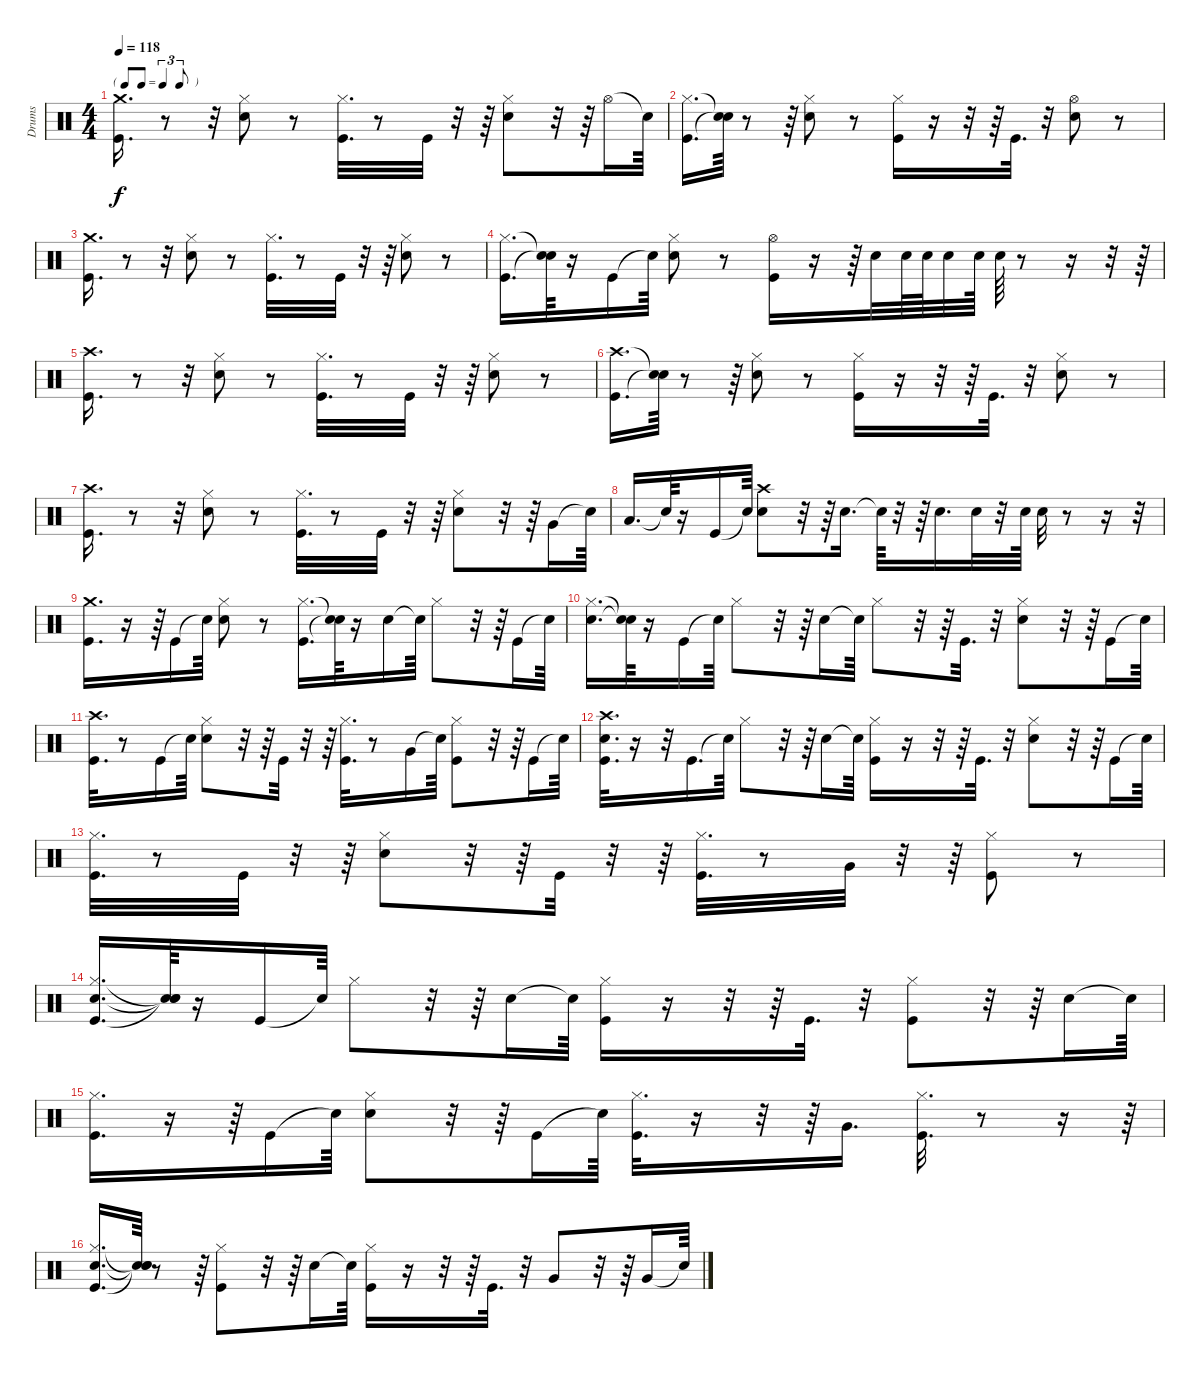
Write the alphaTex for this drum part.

\track ("Drums" "Drums") {instrument percussion}
\staff {score}
\articulation defaults
\ts (4 4)
\tf triplet8th
\tempo 118
\clef neutral
\ks c
("Kick (hit)" "Crash medium (hit)").16{d dy f} r.8 r.32 ("Hi-Hat (closed)" "Snare (hit) 2").8 r.8 ("Kick (hit)" "Hi-Hat (closed)").32{d} r.8 "Kick (hit)".32 r.32 r.64 ("Snare (hit) 2" "Hi-Hat (closed)").8 r.32 r.64 "Hi-Hat (open)".16 "Snare (hit)"{t}.64 |
("Hi-Hat (closed)" "Kick (hit)").16{d} ("Snare (hit)"{t} "Snare (hit)"{t}).64 r.8 r.64 ("Snare (hit) 2" "Hi-Hat (closed)").8 r.8 ("Kick (hit)" "Hi-Hat (closed)").16 r.16 r.32 r.64 "Kick (hit)".32{d} r.32 ("Snare (hit) 2" "Hi-Hat (open)").8 r.8 |
("Kick (hit)" "Crash medium (hit)").16{d} r.8 r.32 ("Hi-Hat (closed)" "Snare (hit) 2").8 r.8 ("Kick (hit)" "Hi-Hat (closed)").32{d} r.8 "Kick (hit)".32 r.32 r.64 ("Snare (hit) 2" "Hi-Hat (closed)").8 r.8 |
("Hi-Hat (closed)" "Kick (hit)").16{d} ("Snare (hit)"{t} "Snare (hit)"{t}).64 r.16 "Kick (hit)".16 "Snare (hit)"{t}.64 ("Snare (hit) 2" "Hi-Hat (closed)").8 r.8 ("Hi-Hat (open)" "Kick (hit)").16 r.16 r.64 "Snare (hit) 2".32 "Snare (hit) 2".64 "Snare (hit) 2".64 "Snare (hit) 2".32 "Snare (hit) 2".64 "Snare (hit) 2".64 r.8 r.16 r.32 r.64 |
("Kick (hit)" "Crash high (hit)").16{d} r.8 r.32 ("Snare (hit) 2" "Hi-Hat (closed)").8 r.8 ("Hi-Hat (closed)" "Kick (hit)").32{d} r.8 "Kick (hit)".32 r.32 r.64 ("Snare (hit) 2" "Hi-Hat (closed)").8 r.8 |
("Crash high (hit)" "Kick (hit)").16{d} ("Snare (hit)"{t} "Snare (hit)"{t}).64 r.8 r.64 ("Hi-Hat (closed)" "Snare (hit) 2").8 r.8 ("Hi-Hat (closed)" "Kick (hit)").16 r.16 r.32 r.64 "Kick (hit)".32{d} r.32 ("Snare (hit) 2" "Hi-Hat (closed)").8 r.8 |
("Crash high (hit)" "Kick (hit)").16{d} r.8 r.32 ("Snare (hit) 2" "Hi-Hat (closed)").8 r.8 ("Kick (hit)" "Hi-Hat (closed)").32{d} r.8 "Kick (hit)".32 r.32 r.64 ("Snare (hit) 2" "Hi-Hat (closed)").8 r.32 r.64 "Very Low Tom (hit)".16 "Snare (hit)"{t}.64 |
"Low Floor Tom (hit)".16{d} "Snare (hit)"{t}.64 r.16 "Kick (hit)".16 "Snare (hit)"{t}.64 ("Snare (hit) 2" "Crash high (hit)").8 r.32 r.64 "Snare (hit) 2".16{d} "Snare (hit)"{t}.64 r.32 r.64 "Snare (hit) 2".16{d} "Snare (hit) 2".32 r.32 "Snare (hit) 2".64 "Snare (hit) 2".32 r.8 r.16 r.32 |
("Kick (hit)" "Crash medium (hit)").16{d} r.16 r.64 "Kick (hit)".16 "Snare (hit)"{t}.64 ("Snare (hit) 2" "Hi-Hat (closed)").8 r.8 ("Kick (hit)" "Hi-Hat (closed)").16{d} ("Snare (hit)"{t} "Snare (hit)"{t}).64 r.16 "Snare (hit) 2".16 "Snare (hit)"{t}.64 "Hi-Hat (closed)".8 r.32 r.64 "Kick (hit)".16 "Snare (hit)"{t}.64 |
("Snare (hit) 2" "Hi-Hat (closed)").16{d} ("Snare (hit)"{t} "Snare (hit)"{t}).64 r.16 "Kick (hit)".16 "Snare (hit)"{t}.64 "Hi-Hat (closed)".8 r.32 r.64 "Snare (hit) 2".16 "Snare (hit)"{t}.64 "Hi-Hat (closed)".8 r.32 r.64 "Kick (hit)".32{d} r.32 ("Snare (hit) 2" "Hi-Hat (closed)").8 r.32 r.64 "Kick (hit)".16 "Snare (hit)"{t}.64 |
("Crash high (hit)" "Kick (hit)").32{d} r.8 "Kick (hit)".16 "Snare (hit)"{t}.64 ("Snare (hit) 2" "Hi-Hat (closed)").8 r.32 r.64 "Kick (hit)".32 r.32 r.64 ("Kick (hit)" "Hi-Hat (closed)").32{d} r.8 "Very Low Tom (hit)".16 "Snare (hit)"{t}.64 ("Kick (hit)" "Hi-Hat (closed)").8 r.32 r.64 "Kick (hit)".16 "Snare (hit)"{t}.64 |
("Snare (hit) 2" "Crash high (hit)" "Kick (hit)").32{d} r.16 r.32 "Kick (hit)".16{d} "Snare (hit)"{t}.64 "Hi-Hat (closed)".8 r.32 r.64 "Snare (hit) 2".16 "Snare (hit)"{t}.64 ("Hi-Hat (closed)" "Kick (hit)").16 r.16 r.32 r.64 "Kick (hit)".32{d} r.32 ("Snare (hit) 2" "Hi-Hat (closed)").8 r.32 r.64 "Kick (hit)".16 "Snare (hit)"{t}.64 |
("Hi-Hat (closed)" "Kick (hit)").32{d} r.8 "Kick (hit)".32 r.32 r.64 ("Hi-Hat (closed)" "Snare (hit) 2").8 r.32 r.64 "Kick (hit)".32 r.32 r.64 ("Hi-Hat (closed)" "Kick (hit)").32{d} r.8 "Very Low Tom (hit)".32 r.32 r.64 ("Hi-Hat (closed)" "Kick (hit)").8 r.8 |
("Kick (hit)" "Hi-Hat (closed)" "Snare (hit) 2").16{d} ("Snare (hit)"{t} "Snare (hit)"{t} "Snare (hit)"{t}).64 r.16 "Kick (hit)".16 "Snare (hit)"{t}.64 "Hi-Hat (closed)".8 r.32 r.64 "Snare (hit) 2".16 "Snare (hit)"{t}.64 ("Hi-Hat (closed)" "Kick (hit)").16 r.16 r.32 r.64 "Kick (hit)".32{d} r.32 ("Kick (hit)" "Hi-Hat (closed)").8 r.32 r.64 "Snare (hit) 2".16 "Snare (hit)"{t}.64 |
("Hi-Hat (closed)" "Kick (hit)").16{d} r.16 r.64 "Kick (hit)".16 "Snare (hit)"{t}.64 ("Snare (hit) 2" "Hi-Hat (closed)").8 r.32 r.64 "Kick (hit)".16 "Snare (hit)"{t}.64 ("Kick (hit)" "Hi-Hat (closed)").32{d} r.16 r.32 r.64 "Very Low Tom (hit)".16{d} ("Hi-Hat (closed)" "Kick (hit)").32{d} r.8 r.16 r.64 |
("Snare (hit) 2" "Hi-Hat (closed)" "Kick (hit)").16{d} ("Snare (hit)"{t} "Snare (hit)"{t} "Snare (hit)"{t}).64 r.8 r.64 ("Kick (hit)" "Hi-Hat (closed)").8 r.32 r.64 "Snare (hit) 2".16 "Snare (hit)"{t}.64 ("Hi-Hat (closed)" "Kick (hit)").16 r.16 r.32 r.64 "Kick (hit)".32{d} r.32 "Very Low Tom (hit)".8 r.32 r.64 "Very Low Tom (hit)".16 "Snare (hit)"{t}.64
